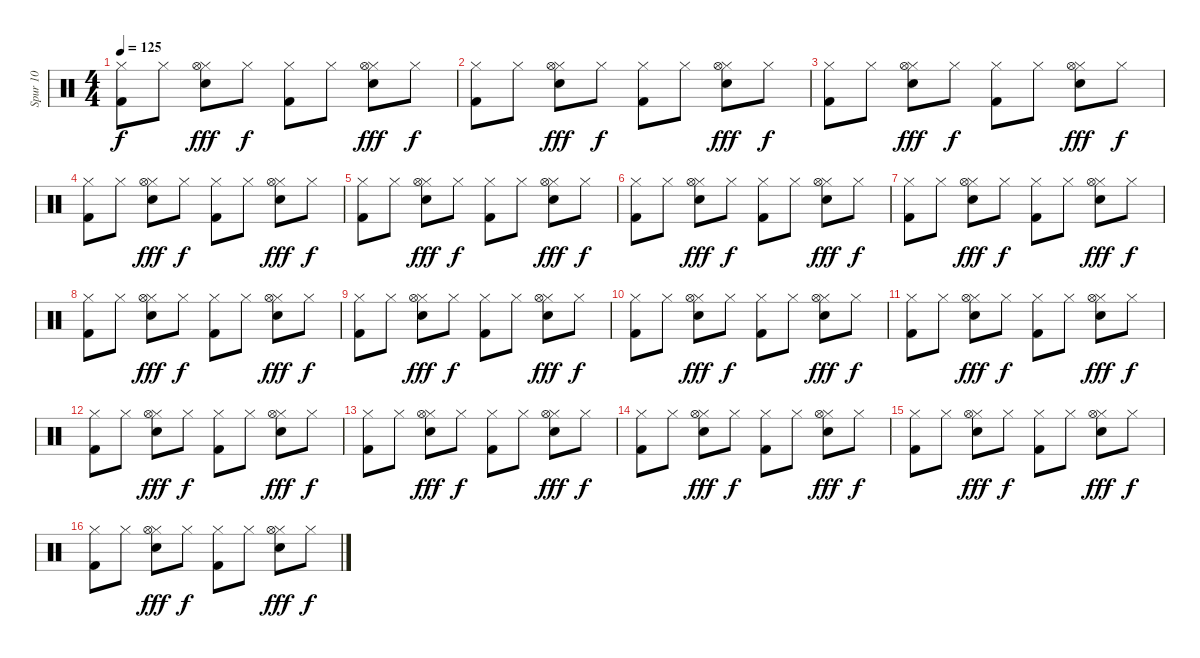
\track ("Spur 10" "Spur 10") {instrument percussion}
\staff {score}
\articulation defaults
\ts (4 4)
\tempo 125
\clef neutral
\ks c
("Kick (hit) 2" "Hi-Hat (closed)").8{dy f} "Hi-Hat (closed)".8 ("Hi-Hat (closed)" "Snare (hit) 2" "Hi-Hat (open)").8{dy fff} "Hi-Hat (closed)".8{dy f} ("Hi-Hat (closed)" "Kick (hit) 2").8 "Hi-Hat (closed)".8 ("Hi-Hat (closed)" "Snare (hit) 2" "Hi-Hat (open)").8{dy fff} "Hi-Hat (closed)".8{dy f} |
("Kick (hit) 2" "Hi-Hat (closed)").8 "Hi-Hat (closed)".8 ("Hi-Hat (closed)" "Snare (hit) 2" "Hi-Hat (open)").8{dy fff} "Hi-Hat (closed)".8{dy f} ("Hi-Hat (closed)" "Kick (hit) 2").8 "Hi-Hat (closed)".8 ("Hi-Hat (closed)" "Snare (hit) 2" "Hi-Hat (open)").8{dy fff} "Hi-Hat (closed)".8{dy f} |
("Kick (hit) 2" "Hi-Hat (closed)").8 "Hi-Hat (closed)".8 ("Hi-Hat (closed)" "Snare (hit) 2" "Hi-Hat (open)").8{dy fff} "Hi-Hat (closed)".8{dy f} ("Hi-Hat (closed)" "Kick (hit) 2").8 "Hi-Hat (closed)".8 ("Hi-Hat (closed)" "Snare (hit) 2" "Hi-Hat (open)").8{dy fff} "Hi-Hat (closed)".8{dy f} |
("Kick (hit) 2" "Hi-Hat (closed)").8 "Hi-Hat (closed)".8 ("Hi-Hat (closed)" "Snare (hit) 2" "Hi-Hat (open)").8{dy fff} "Hi-Hat (closed)".8{dy f} ("Hi-Hat (closed)" "Kick (hit) 2").8 "Hi-Hat (closed)".8 ("Hi-Hat (closed)" "Snare (hit) 2" "Hi-Hat (open)").8{dy fff} "Hi-Hat (closed)".8{dy f} |
("Kick (hit) 2" "Hi-Hat (closed)").8 "Hi-Hat (closed)".8 ("Hi-Hat (closed)" "Snare (hit) 2" "Hi-Hat (open)").8{dy fff} "Hi-Hat (closed)".8{dy f} ("Hi-Hat (closed)" "Kick (hit) 2").8 "Hi-Hat (closed)".8 ("Hi-Hat (closed)" "Snare (hit) 2" "Hi-Hat (open)").8{dy fff} "Hi-Hat (closed)".8{dy f} |
("Kick (hit) 2" "Hi-Hat (closed)").8 "Hi-Hat (closed)".8 ("Hi-Hat (closed)" "Snare (hit) 2" "Hi-Hat (open)").8{dy fff} "Hi-Hat (closed)".8{dy f} ("Hi-Hat (closed)" "Kick (hit) 2").8 "Hi-Hat (closed)".8 ("Hi-Hat (closed)" "Snare (hit) 2" "Hi-Hat (open)").8{dy fff} "Hi-Hat (closed)".8{dy f} |
("Kick (hit) 2" "Hi-Hat (closed)").8 "Hi-Hat (closed)".8 ("Hi-Hat (closed)" "Snare (hit) 2" "Hi-Hat (open)").8{dy fff} "Hi-Hat (closed)".8{dy f} ("Hi-Hat (closed)" "Kick (hit) 2").8 "Hi-Hat (closed)".8 ("Hi-Hat (closed)" "Snare (hit) 2" "Hi-Hat (open)").8{dy fff} "Hi-Hat (closed)".8{dy f} |
("Kick (hit) 2" "Hi-Hat (closed)").8 "Hi-Hat (closed)".8 ("Hi-Hat (closed)" "Snare (hit) 2" "Hi-Hat (open)").8{dy fff} "Hi-Hat (closed)".8{dy f} ("Hi-Hat (closed)" "Kick (hit) 2").8 "Hi-Hat (closed)".8 ("Hi-Hat (closed)" "Snare (hit) 2" "Hi-Hat (open)").8{dy fff} "Hi-Hat (closed)".8{dy f} |
("Kick (hit) 2" "Hi-Hat (closed)").8 "Hi-Hat (closed)".8 ("Hi-Hat (closed)" "Snare (hit) 2" "Hi-Hat (open)").8{dy fff} "Hi-Hat (closed)".8{dy f} ("Hi-Hat (closed)" "Kick (hit) 2").8 "Hi-Hat (closed)".8 ("Hi-Hat (closed)" "Snare (hit) 2" "Hi-Hat (open)").8{dy fff} "Hi-Hat (closed)".8{dy f} |
("Kick (hit) 2" "Hi-Hat (closed)").8 "Hi-Hat (closed)".8 ("Hi-Hat (closed)" "Snare (hit) 2" "Hi-Hat (open)").8{dy fff} "Hi-Hat (closed)".8{dy f} ("Hi-Hat (closed)" "Kick (hit) 2").8 "Hi-Hat (closed)".8 ("Hi-Hat (closed)" "Snare (hit) 2" "Hi-Hat (open)").8{dy fff} "Hi-Hat (closed)".8{dy f} |
("Kick (hit) 2" "Hi-Hat (closed)").8 "Hi-Hat (closed)".8 ("Hi-Hat (closed)" "Snare (hit) 2" "Hi-Hat (open)").8{dy fff} "Hi-Hat (closed)".8{dy f} ("Hi-Hat (closed)" "Kick (hit) 2").8 "Hi-Hat (closed)".8 ("Hi-Hat (closed)" "Snare (hit) 2" "Hi-Hat (open)").8{dy fff} "Hi-Hat (closed)".8{dy f} |
("Kick (hit) 2" "Hi-Hat (closed)").8 "Hi-Hat (closed)".8 ("Hi-Hat (closed)" "Snare (hit) 2" "Hi-Hat (open)").8{dy fff} "Hi-Hat (closed)".8{dy f} ("Hi-Hat (closed)" "Kick (hit) 2").8 "Hi-Hat (closed)".8 ("Hi-Hat (closed)" "Snare (hit) 2" "Hi-Hat (open)").8{dy fff} "Hi-Hat (closed)".8{dy f} |
("Kick (hit) 2" "Hi-Hat (closed)").8 "Hi-Hat (closed)".8 ("Hi-Hat (closed)" "Snare (hit) 2" "Hi-Hat (open)").8{dy fff} "Hi-Hat (closed)".8{dy f} ("Hi-Hat (closed)" "Kick (hit) 2").8 "Hi-Hat (closed)".8 ("Hi-Hat (closed)" "Snare (hit) 2" "Hi-Hat (open)").8{dy fff} "Hi-Hat (closed)".8{dy f} |
("Kick (hit) 2" "Hi-Hat (closed)").8 "Hi-Hat (closed)".8 ("Hi-Hat (closed)" "Snare (hit) 2" "Hi-Hat (open)").8{dy fff} "Hi-Hat (closed)".8{dy f} ("Hi-Hat (closed)" "Kick (hit) 2").8 "Hi-Hat (closed)".8 ("Hi-Hat (closed)" "Snare (hit) 2" "Hi-Hat (open)").8{dy fff} "Hi-Hat (closed)".8{dy f} |
("Kick (hit) 2" "Hi-Hat (closed)").8 "Hi-Hat (closed)".8 ("Hi-Hat (closed)" "Snare (hit) 2" "Hi-Hat (open)").8{dy fff} "Hi-Hat (closed)".8{dy f} ("Hi-Hat (closed)" "Kick (hit) 2").8 "Hi-Hat (closed)".8 ("Hi-Hat (closed)" "Snare (hit) 2" "Hi-Hat (open)").8{dy fff} "Hi-Hat (closed)".8{dy f} |
("Kick (hit) 2" "Hi-Hat (closed)").8 "Hi-Hat (closed)".8 ("Hi-Hat (closed)" "Snare (hit) 2" "Hi-Hat (open)").8{dy fff} "Hi-Hat (closed)".8{dy f} ("Hi-Hat (closed)" "Kick (hit) 2").8 "Hi-Hat (closed)".8 ("Hi-Hat (closed)" "Snare (hit) 2" "Hi-Hat (open)").8{dy fff} "Hi-Hat (closed)".8{dy f}
